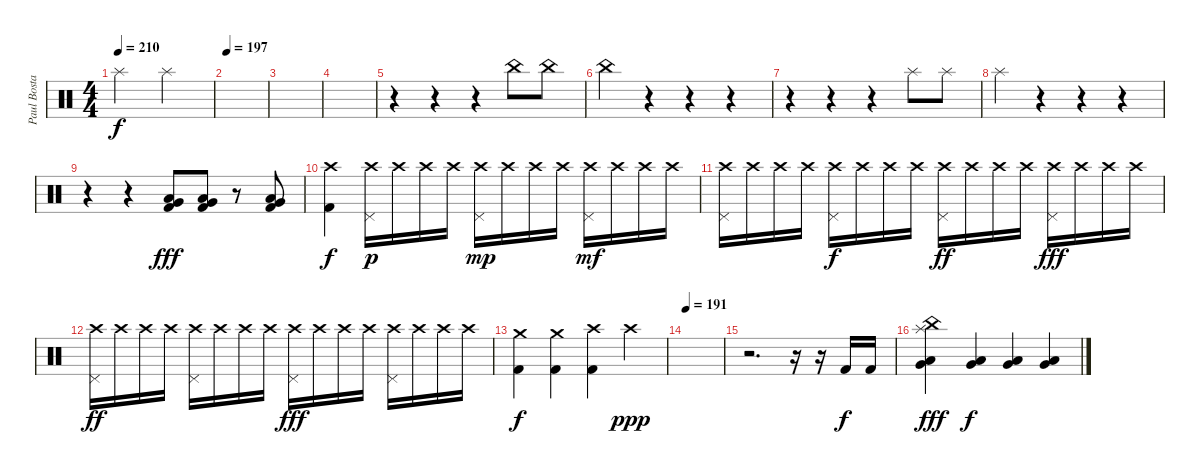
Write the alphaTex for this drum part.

\track ("Paul Bostaph" "Paul Bosta") {instrument percussion}
\staff {score}
\articulation defaults
\ts (4 4)
\tempo 210
\clef neutral
\ks c "Splash (hit)".2{dy f} "Splash (hit)".2
|
\tempo 197
|
|
|
r.4 r.4 r.4 "China (hit)".8 "China (hit)".8 |
"China (hit)".4 r.4 r.4 r.4 |
r.4 r.4 r.4 "Splash (hit)".8 "Splash (hit)".8 |
"Splash (hit)".4 r.4 r.4 r.4 |
r.4 r.4 ("Low Tom (hit)" "Kick (hit) 2" "Very Low Tom (hit)").8{dy fff} ("Low Tom (hit)" "Kick (hit) 2" "Very Low Tom (hit)").8 r.8 ("Low Tom (hit)" "Very Low Tom (hit)" "Kick (hit) 2").8 |
("Crash high (hit)" "Kick (hit) 2").4{dy f} ("Crash high (hit)" "Pedal Hi-Hat (hit)").16{dy p} "Crash high (hit)".16 "Crash high (hit)".16 "Crash high (hit)".16 ("Crash high (hit)" "Pedal Hi-Hat (hit)").16{dy mp} "Crash high (hit)".16 "Crash high (hit)".16 "Crash high (hit)".16 ("Crash high (hit)" "Pedal Hi-Hat (hit)").16{dy mf} "Crash high (hit)".16 "Crash high (hit)".16 "Crash high (hit)".16 |
("Crash high (hit)" "Pedal Hi-Hat (hit)").16 "Crash high (hit)".16 "Crash high (hit)".16 "Crash high (hit)".16 ("Crash high (hit)" "Pedal Hi-Hat (hit)").16{dy f} "Crash high (hit)".16 "Crash high (hit)".16 "Crash high (hit)".16 ("Crash high (hit)" "Pedal Hi-Hat (hit)").16{dy ff} "Crash high (hit)".16 "Crash high (hit)".16 "Crash high (hit)".16 ("Crash high (hit)" "Pedal Hi-Hat (hit)").16{dy fff} "Crash high (hit)".16 "Crash high (hit)".16 "Crash high (hit)".16 |
("Crash high (hit)" "Pedal Hi-Hat (hit)").16{dy ff} "Crash high (hit)".16 "Crash high (hit)".16 "Crash high (hit)".16 ("Crash high (hit)" "Pedal Hi-Hat (hit)").16 "Crash high (hit)".16 "Crash high (hit)".16 "Crash high (hit)".16 ("Crash high (hit)" "Pedal Hi-Hat (hit)").16{dy fff} "Crash high (hit)".16 "Crash high (hit)".16 "Crash high (hit)".16 ("Crash high (hit)" "Pedal Hi-Hat (hit)").16 "Crash high (hit)".16 "Crash high (hit)".16 "Crash high (hit)".16 |
("Crash medium (hit)" "Kick (hit) 2").4{dy f} ("Crash medium (hit)" "Kick (hit) 2").4 ("Crash high (hit)" "Kick (hit) 2").4 "Crash high (hit)".4{dy ppp} |
\tempo 191
|
r.2{d} r.16 r.16 "Kick (hit) 2".16{dy f} "Kick (hit) 2".16 |
("Splash (hit)" "China (hit)" "Very Low Tom (hit)" "Low Floor Tom (hit)").4{dy fff} ("Very Low Tom (hit)" "Low Tom (hit)").4{dy f} ("Low Tom (hit)" "Very Low Tom (hit)").4 ("Low Tom (hit)" "Very Low Tom (hit)").4
